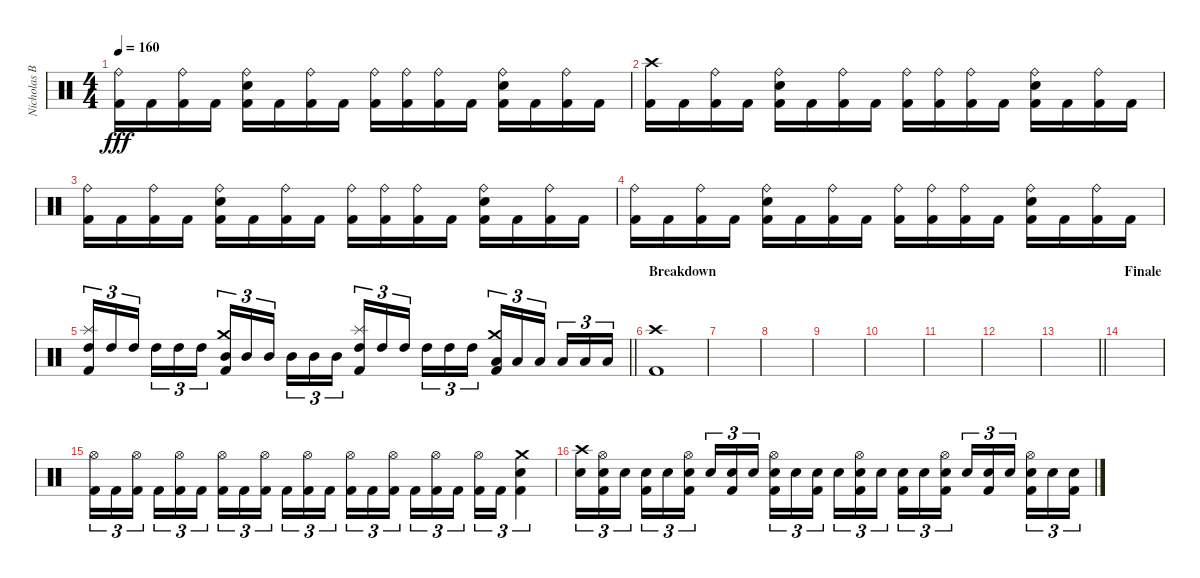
\track ("Nicholas Barker" "Nicholas B") {instrument percussion}
\staff {score}
\articulation defaults
\ts (4 4)
\tempo 160
\clef neutral
\ks c
("Ride (bell)" "Kick (hit) 2").16{dy fff} "Kick (hit) 2".16 ("Ride (bell)" "Kick (hit) 2").16 "Kick (hit) 2".16 ("Ride (bell)" "Snare (hit) 2" "Kick (hit) 2").16 "Kick (hit) 2".16 ("Ride (bell)" "Kick (hit) 2").16 "Kick (hit) 2".16 ("Ride (bell)" "Kick (hit) 2").16 ("Ride (bell)" "Kick (hit) 2").16 ("Ride (bell)" "Kick (hit) 2").16 "Kick (hit) 2".16 ("Ride (bell)" "Snare (hit) 2" "Kick (hit) 2").16 "Kick (hit) 2".16 ("Ride (bell)" "Kick (hit) 2").16 "Kick (hit) 2".16 |
("Crash high (hit)" "Kick (hit) 2").16 "Kick (hit) 2".16 ("Ride (bell)" "Kick (hit) 2").16 "Kick (hit) 2".16 ("Ride (bell)" "Snare (hit) 2" "Kick (hit) 2").16 "Kick (hit) 2".16 ("Ride (bell)" "Kick (hit) 2").16 "Kick (hit) 2".16 ("Ride (bell)" "Kick (hit) 2").16 ("Ride (bell)" "Kick (hit) 2").16 ("Ride (bell)" "Kick (hit) 2").16 "Kick (hit) 2".16 ("Ride (bell)" "Snare (hit) 2" "Kick (hit) 2").16 "Kick (hit) 2".16 ("Ride (bell)" "Kick (hit) 2").16 "Kick (hit) 2".16 |
("Ride (bell)" "Kick (hit) 2").16 "Kick (hit) 2".16 ("Ride (bell)" "Kick (hit) 2").16 "Kick (hit) 2".16 ("Ride (bell)" "Snare (hit) 2" "Kick (hit) 2").16 "Kick (hit) 2".16 ("Ride (bell)" "Kick (hit) 2").16 "Kick (hit) 2".16 ("Ride (bell)" "Kick (hit) 2").16 ("Ride (bell)" "Kick (hit) 2").16 ("Ride (bell)" "Kick (hit) 2").16 "Kick (hit) 2".16 ("Ride (bell)" "Snare (hit) 2" "Kick (hit) 2").16 "Kick (hit) 2".16 ("Ride (bell)" "Kick (hit) 2").16 "Kick (hit) 2".16 |
("Ride (bell)" "Kick (hit) 2").16 "Kick (hit) 2".16 ("Ride (bell)" "Kick (hit) 2").16 "Kick (hit) 2".16 ("Ride (bell)" "Snare (hit) 2" "Kick (hit) 2").16 "Kick (hit) 2".16 ("Ride (bell)" "Kick (hit) 2").16 "Kick (hit) 2".16 ("Ride (bell)" "Kick (hit) 2").16 ("Ride (bell)" "Kick (hit) 2").16 ("Ride (bell)" "Kick (hit) 2").16 "Kick (hit) 2".16 ("Ride (bell)" "Snare (hit) 2" "Kick (hit) 2").16 "Kick (hit) 2".16 ("Ride (bell)" "Kick (hit) 2").16 "Kick (hit) 2".16 |
\barLineRight lightlight
("Splash (hit)" "High Tom (hit)" "Kick (hit) 2").16{tu (3 2)} "High Tom (hit)".16{tu (3 2)} "High Tom (hit)".16{tu (3 2) beam splitsecondary} "High Tom (hit)".16{tu (3 2)} "High Tom (hit)".16{tu (3 2)} "High Tom (hit)".16{tu (3 2)} ("Crash medium (hit)" "Mid Tom (hit)" "Kick (hit) 2").16{tu (3 2)} "Mid Tom (hit)".16{tu (3 2)} "Mid Tom (hit)".16{tu (3 2) beam splitsecondary} "Mid Tom (hit)".16{tu (3 2)} "Mid Tom (hit)".16{tu (3 2)} "Mid Tom (hit)".16{tu (3 2)} ("Splash (hit)" "High Tom (hit)" "Kick (hit) 2").16{tu (3 2)} "High Tom (hit)".16{tu (3 2)} "High Tom (hit)".16{tu (3 2) beam splitsecondary} "High Tom (hit)".16{tu (3 2)} "High Tom (hit)".16{tu (3 2)} "High Tom (hit)".16{tu (3 2)} ("Crash medium (hit)" "Low Tom (hit)" "Kick (hit) 2").16{tu (3 2)} "Low Tom (hit)".16{tu (3 2)} "Low Tom (hit)".16{tu (3 2) beam splitsecondary} "Low Tom (hit)".16{tu (3 2)} "Low Tom (hit)".16{tu (3 2)} "Low Tom (hit)".16{tu (3 2)} |
\section ("" "Breakdown")
("Crash high (hit)" "Kick (hit) 2").1 |
|
|
|
|
|
|
\barLineRight lightlight
|
\section ("" "Finale")
|
("Hi-Hat (open)" "Kick (hit) 2").16{tu (3 2)} "Kick (hit) 2".16{tu (3 2)} ("Hi-Hat (open)" "Kick (hit) 2").16{tu (3 2) beam splitsecondary} "Kick (hit) 2".16{tu (3 2)} ("Hi-Hat (open)" "Kick (hit) 2").16{tu (3 2)} "Kick (hit) 2".16{tu (3 2)} ("Hi-Hat (open)" "Kick (hit) 2").16{tu (3 2)} "Kick (hit) 2".16{tu (3 2)} ("Hi-Hat (open)" "Kick (hit) 2").16{tu (3 2) beam splitsecondary} "Kick (hit) 2".16{tu (3 2)} ("Hi-Hat (open)" "Kick (hit) 2").16{tu (3 2)} "Kick (hit) 2".16{tu (3 2)} ("Hi-Hat (open)" "Kick (hit) 2").16{tu (3 2)} "Kick (hit) 2".16{tu (3 2)} ("Hi-Hat (open)" "Kick (hit) 2").16{tu (3 2) beam splitsecondary} "Kick (hit) 2".16{tu (3 2)} ("Hi-Hat (open)" "Kick (hit) 2").16{tu (3 2)} "Kick (hit) 2".16{tu (3 2)} ("Hi-Hat (open)" "Kick (hit) 2").16{tu (3 2)} "Kick (hit) 2".16{tu (3 2)} ("Crash medium (hit)" "Snare (hit) 2" "Kick (hit) 2").4{tu (3 2)} |
("Crash high (hit)" "Snare (hit) 2").16{tu (3 2)} ("Hi-Hat (open)" "Snare (hit) 2" "Kick (hit) 2").16{tu (3 2)} "Snare (hit) 2".16{tu (3 2) beam splitsecondary} ("Snare (hit) 2" "Kick (hit) 2").16{tu (3 2)} "Snare (hit) 2".16{tu (3 2)} ("Hi-Hat (open)" "Snare (hit) 2" "Kick (hit) 2").16{tu (3 2)} "Snare (hit) 2".16{tu (3 2)} ("Snare (hit) 2" "Kick (hit) 2").16{tu (3 2)} "Snare (hit) 2".16{tu (3 2) beam splitsecondary} ("Hi-Hat (open)" "Snare (hit) 2" "Kick (hit) 2").16{tu (3 2)} "Snare (hit) 2".16{tu (3 2)} ("Snare (hit) 2" "Kick (hit) 2").16{tu (3 2)} "Snare (hit) 2".16{tu (3 2)} ("Hi-Hat (open)" "Snare (hit) 2" "Kick (hit) 2").16{tu (3 2)} "Snare (hit) 2".16{tu (3 2) beam splitsecondary} ("Snare (hit) 2" "Kick (hit) 2").16{tu (3 2)} "Snare (hit) 2".16{tu (3 2)} ("Hi-Hat (open)" "Snare (hit) 2" "Kick (hit) 2").16{tu (3 2)} "Snare (hit) 2".16{tu (3 2)} ("Snare (hit) 2" "Kick (hit) 2").16{tu (3 2)} "Snare (hit) 2".16{tu (3 2) beam splitsecondary} ("Hi-Hat (open)" "Snare (hit) 2" "Kick (hit) 2").16{tu (3 2)} "Snare (hit) 2".16{tu (3 2)} ("Snare (hit) 2" "Kick (hit) 2").16{tu (3 2)}
